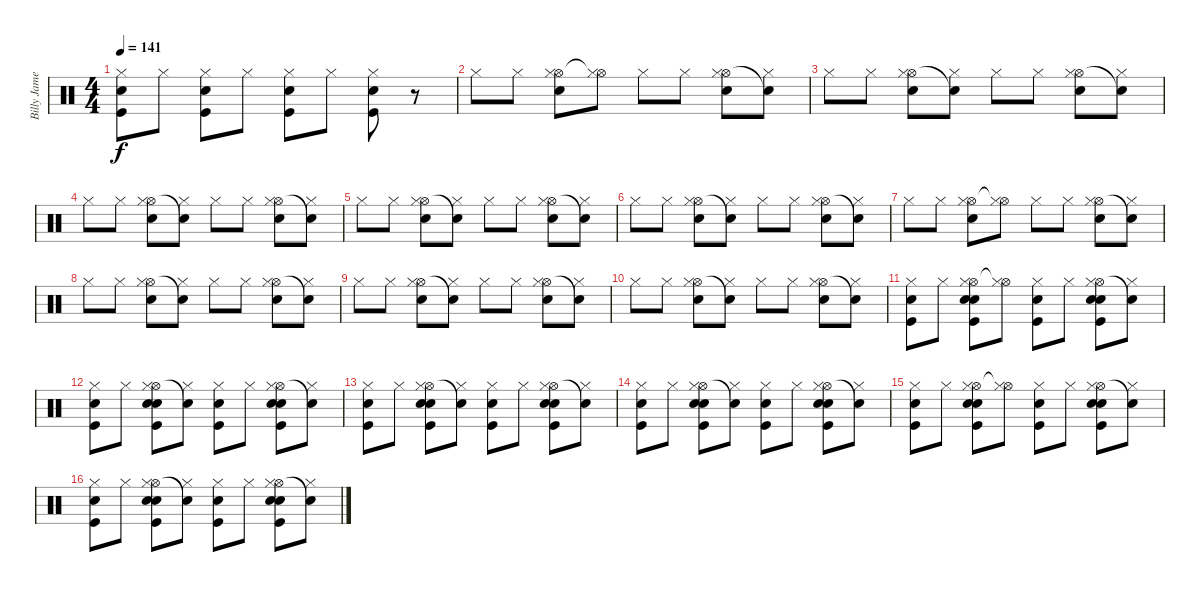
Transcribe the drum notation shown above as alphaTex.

\track ("Billy James (Drums)" "Billy Jame") {instrument percussion}
\staff {score}
\articulation defaults
\ts (4 4)
\tempo 141
\clef neutral
\ks c
("Hi-Hat (closed)" "Kick (hit)" "Snare (hit) 2").8{dy f} "Hi-Hat (closed)".8 ("Hi-Hat (closed)" "Kick (hit)" "Snare (hit) 2").8 "Hi-Hat (closed)".8 ("Hi-Hat (closed)" "Kick (hit)" "Snare (hit) 2").8 "Hi-Hat (closed)".8 ("Hi-Hat (closed)" "Kick (hit)" "Snare (hit) 2").8 r.8 |
"Hi-Hat (closed)".8 "Hi-Hat (closed)".8 ("Hi-Hat (open)" "Snare (hit) 2" "Hi-Hat (closed)").8 ("Hi-Hat (open)"{t} "Hi-Hat (closed)").8 "Hi-Hat (closed)".8 "Hi-Hat (closed)".8 ("Hi-Hat (open)" "Snare (hit) 2" "Hi-Hat (closed)").8 ("Snare (hit)"{t} "Hi-Hat (closed)").8 |
"Hi-Hat (closed)".8 "Hi-Hat (closed)".8 ("Hi-Hat (open)" "Snare (hit) 2" "Hi-Hat (closed)").8 ("Snare (hit)"{t} "Hi-Hat (closed)").8 "Hi-Hat (closed)".8 "Hi-Hat (closed)".8 ("Hi-Hat (open)" "Snare (hit) 2" "Hi-Hat (closed)").8 ("Snare (hit)"{t} "Hi-Hat (closed)").8 |
"Hi-Hat (closed)".8 "Hi-Hat (closed)".8 ("Hi-Hat (open)" "Snare (hit) 2" "Hi-Hat (closed)").8 ("Snare (hit)"{t} "Hi-Hat (closed)").8 "Hi-Hat (closed)".8 "Hi-Hat (closed)".8 ("Hi-Hat (open)" "Snare (hit) 2" "Hi-Hat (closed)").8 ("Snare (hit)"{t} "Hi-Hat (closed)").8 |
"Hi-Hat (closed)".8 "Hi-Hat (closed)".8 ("Hi-Hat (open)" "Snare (hit) 2" "Hi-Hat (closed)").8 ("Snare (hit)"{t} "Hi-Hat (closed)").8 "Hi-Hat (closed)".8 "Hi-Hat (closed)".8 ("Hi-Hat (open)" "Snare (hit) 2" "Hi-Hat (closed)").8 ("Snare (hit)"{t} "Hi-Hat (closed)").8 |
"Hi-Hat (closed)".8 "Hi-Hat (closed)".8 ("Hi-Hat (open)" "Snare (hit) 2" "Hi-Hat (closed)").8 ("Snare (hit)"{t} "Hi-Hat (closed)").8 "Hi-Hat (closed)".8 "Hi-Hat (closed)".8 ("Hi-Hat (open)" "Snare (hit) 2" "Hi-Hat (closed)").8 ("Snare (hit)"{t} "Hi-Hat (closed)").8 |
"Hi-Hat (closed)".8 "Hi-Hat (closed)".8 ("Hi-Hat (open)" "Snare (hit) 2" "Hi-Hat (closed)").8 ("Hi-Hat (open)"{t} "Hi-Hat (closed)").8 "Hi-Hat (closed)".8 "Hi-Hat (closed)".8 ("Hi-Hat (open)" "Snare (hit) 2" "Hi-Hat (closed)").8 ("Snare (hit)"{t} "Hi-Hat (closed)").8 |
"Hi-Hat (closed)".8 "Hi-Hat (closed)".8 ("Hi-Hat (open)" "Snare (hit) 2" "Hi-Hat (closed)").8 ("Snare (hit)"{t} "Hi-Hat (closed)").8 "Hi-Hat (closed)".8 "Hi-Hat (closed)".8 ("Hi-Hat (open)" "Snare (hit) 2" "Hi-Hat (closed)").8 ("Snare (hit)"{t} "Hi-Hat (closed)").8 |
"Hi-Hat (closed)".8 "Hi-Hat (closed)".8 ("Hi-Hat (open)" "Snare (hit) 2" "Hi-Hat (closed)").8 ("Snare (hit)"{t} "Hi-Hat (closed)").8 "Hi-Hat (closed)".8 "Hi-Hat (closed)".8 ("Hi-Hat (open)" "Snare (hit) 2" "Hi-Hat (closed)").8 ("Snare (hit)"{t} "Hi-Hat (closed)").8 |
"Hi-Hat (closed)".8 "Hi-Hat (closed)".8 ("Hi-Hat (open)" "Snare (hit) 2" "Hi-Hat (closed)").8 ("Snare (hit)"{t} "Hi-Hat (closed)").8 "Hi-Hat (closed)".8 "Hi-Hat (closed)".8 ("Hi-Hat (open)" "Snare (hit) 2" "Hi-Hat (closed)").8 ("Snare (hit)"{t} "Hi-Hat (closed)").8 |
("Kick (hit)" "Hi-Hat (closed)" "Snare (hit) 2").8 "Hi-Hat (closed)".8 ("Hi-Hat (open)" "Snare (hit) 2" "Kick (hit)" "Hi-Hat (closed)" "Snare (hit) 2").8 ("Hi-Hat (open)"{t} "Hi-Hat (closed)").8 ("Kick (hit)" "Hi-Hat (closed)" "Snare (hit) 2").8 "Hi-Hat (closed)".8 ("Hi-Hat (open)" "Snare (hit) 2" "Kick (hit)" "Hi-Hat (closed)" "Snare (hit) 2").8 ("Snare (hit)"{t} "Hi-Hat (closed)").8 |
("Kick (hit)" "Hi-Hat (closed)" "Snare (hit) 2").8 "Hi-Hat (closed)".8 ("Hi-Hat (open)" "Snare (hit) 2" "Kick (hit)" "Hi-Hat (closed)" "Snare (hit) 2").8 ("Snare (hit)"{t} "Hi-Hat (closed)").8 ("Kick (hit)" "Hi-Hat (closed)" "Snare (hit) 2").8 "Hi-Hat (closed)".8 ("Hi-Hat (open)" "Snare (hit) 2" "Kick (hit)" "Hi-Hat (closed)" "Snare (hit) 2").8 ("Snare (hit)"{t} "Hi-Hat (closed)").8 |
("Kick (hit)" "Hi-Hat (closed)" "Snare (hit) 2").8 "Hi-Hat (closed)".8 ("Hi-Hat (open)" "Snare (hit) 2" "Kick (hit)" "Hi-Hat (closed)" "Snare (hit) 2").8 ("Snare (hit)"{t} "Hi-Hat (closed)").8 ("Kick (hit)" "Hi-Hat (closed)" "Snare (hit) 2").8 "Hi-Hat (closed)".8 ("Hi-Hat (open)" "Snare (hit) 2" "Kick (hit)" "Hi-Hat (closed)" "Snare (hit) 2").8 ("Snare (hit)"{t} "Hi-Hat (closed)").8 |
("Kick (hit)" "Hi-Hat (closed)" "Snare (hit) 2").8 "Hi-Hat (closed)".8 ("Hi-Hat (open)" "Snare (hit) 2" "Kick (hit)" "Hi-Hat (closed)" "Snare (hit) 2").8 ("Snare (hit)"{t} "Hi-Hat (closed)").8 ("Kick (hit)" "Hi-Hat (closed)" "Snare (hit) 2").8 "Hi-Hat (closed)".8 ("Hi-Hat (open)" "Snare (hit) 2" "Kick (hit)" "Hi-Hat (closed)" "Snare (hit) 2").8 ("Snare (hit)"{t} "Hi-Hat (closed)").8 |
("Kick (hit)" "Hi-Hat (closed)" "Snare (hit) 2").8 "Hi-Hat (closed)".8 ("Hi-Hat (open)" "Snare (hit) 2" "Kick (hit)" "Hi-Hat (closed)" "Snare (hit) 2").8 ("Hi-Hat (open)"{t} "Hi-Hat (closed)").8 ("Kick (hit)" "Hi-Hat (closed)" "Snare (hit) 2").8 "Hi-Hat (closed)".8 ("Hi-Hat (open)" "Snare (hit) 2" "Kick (hit)" "Hi-Hat (closed)" "Snare (hit) 2").8 ("Snare (hit)"{t} "Hi-Hat (closed)").8 |
("Kick (hit)" "Hi-Hat (closed)" "Snare (hit) 2").8 "Hi-Hat (closed)".8 ("Hi-Hat (open)" "Snare (hit) 2" "Kick (hit)" "Hi-Hat (closed)" "Snare (hit) 2").8 ("Snare (hit)"{t} "Hi-Hat (closed)").8 ("Kick (hit)" "Hi-Hat (closed)" "Snare (hit) 2").8 "Hi-Hat (closed)".8 ("Hi-Hat (open)" "Snare (hit) 2" "Kick (hit)" "Hi-Hat (closed)" "Snare (hit) 2").8 ("Snare (hit)"{t} "Hi-Hat (closed)").8
